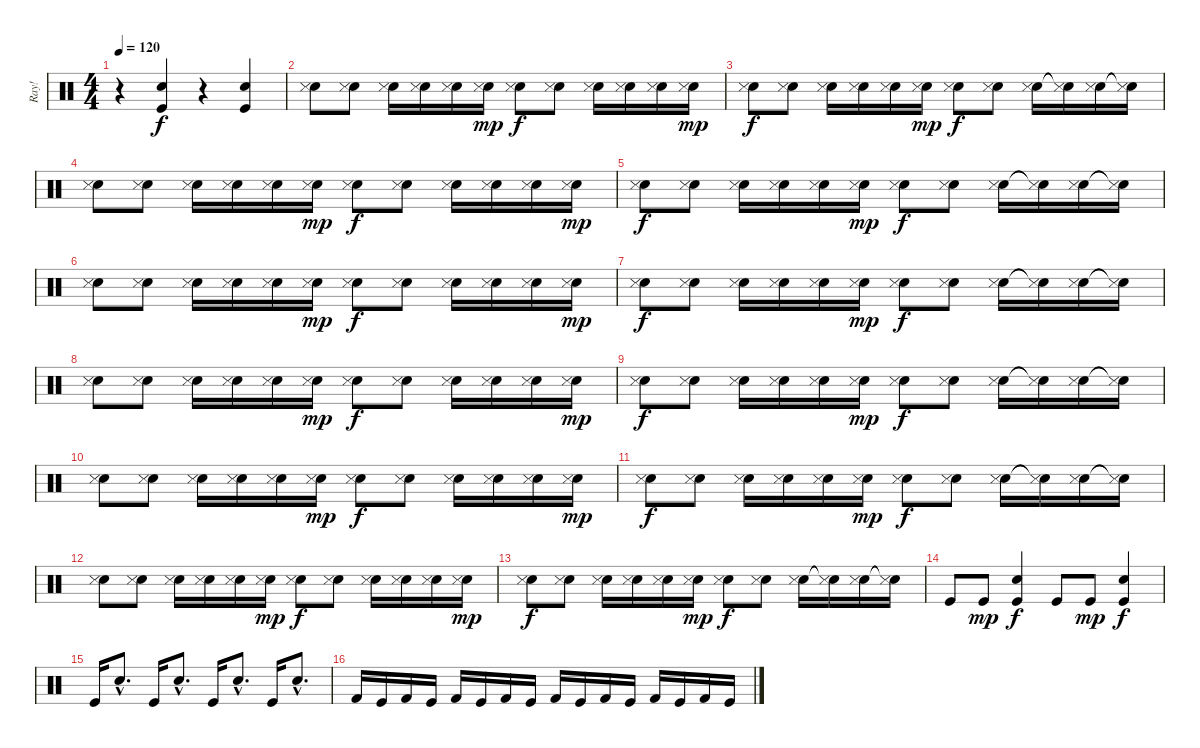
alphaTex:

\track ("Ray!" "Ray!") {instrument percussion}
\staff {score}
\articulation defaults
\ts (4 4)
\tempo 120
\clef neutral
\ks c
r.4{dy f} ("Snare (hit) 2" "Kick (hit)").4 r.4 ("Snare (hit) 2" "Kick (hit)").4 |
("Snare (hit) 2" "Snare (side stick) 3").8 ("Snare (hit) 2" "Snare (side stick) 3").8 ("Snare (hit) 2" "Snare (side stick) 3").16 ("Snare (hit) 2" "Snare (side stick) 3").16 ("Snare (hit) 2" "Snare (side stick) 3").16 ("Snare (hit) 2" "Snare (side stick) 3").16{dy mp} ("Snare (hit) 2" "Snare (side stick) 3").8{dy f} ("Snare (hit) 2" "Snare (side stick) 3").8 ("Snare (hit) 2" "Snare (side stick) 3").16 ("Snare (hit) 2" "Snare (side stick) 3").16 ("Snare (hit) 2" "Snare (side stick) 3").16 ("Snare (hit) 2" "Snare (side stick) 3").16{dy mp} |
("Snare (hit) 2" "Snare (side stick) 3").8{dy f} ("Snare (hit) 2" "Snare (side stick) 3").8 ("Snare (hit) 2" "Snare (side stick) 3").16 ("Snare (hit) 2" "Snare (side stick) 3").16 ("Snare (hit) 2" "Snare (side stick) 3").16 ("Snare (hit) 2" "Snare (side stick) 3").16{dy mp} ("Snare (hit) 2" "Snare (side stick) 3").8{dy f} ("Snare (hit) 2" "Snare (side stick) 3").8 ("Snare (hit) 2" "Snare (side stick) 3").16 ("Snare (hit) 2"{t} "Snare (side stick) 3"{t}).16 ("Snare (hit) 2" "Snare (side stick) 3").16 ("Snare (hit) 2"{t} "Snare (side stick) 3"{t}).16 |
("Snare (hit) 2" "Snare (side stick) 3").8 ("Snare (hit) 2" "Snare (side stick) 3").8 ("Snare (hit) 2" "Snare (side stick) 3").16 ("Snare (hit) 2" "Snare (side stick) 3").16 ("Snare (hit) 2" "Snare (side stick) 3").16 ("Snare (hit) 2" "Snare (side stick) 3").16{dy mp} ("Snare (hit) 2" "Snare (side stick) 3").8{dy f} ("Snare (hit) 2" "Snare (side stick) 3").8 ("Snare (hit) 2" "Snare (side stick) 3").16 ("Snare (hit) 2" "Snare (side stick) 3").16 ("Snare (hit) 2" "Snare (side stick) 3").16 ("Snare (hit) 2" "Snare (side stick) 3").16{dy mp} |
("Snare (hit) 2" "Snare (side stick) 3").8{dy f} ("Snare (hit) 2" "Snare (side stick) 3").8 ("Snare (hit) 2" "Snare (side stick) 3").16 ("Snare (hit) 2" "Snare (side stick) 3").16 ("Snare (hit) 2" "Snare (side stick) 3").16 ("Snare (hit) 2" "Snare (side stick) 3").16{dy mp} ("Snare (hit) 2" "Snare (side stick) 3").8{dy f} ("Snare (hit) 2" "Snare (side stick) 3").8 ("Snare (hit) 2" "Snare (side stick) 3").16 ("Snare (hit) 2"{t} "Snare (side stick) 3"{t}).16 ("Snare (hit) 2" "Snare (side stick) 3").16 ("Snare (hit) 2"{t} "Snare (side stick) 3"{t}).16 |
("Snare (hit) 2" "Snare (side stick) 3").8 ("Snare (hit) 2" "Snare (side stick) 3").8 ("Snare (hit) 2" "Snare (side stick) 3").16 ("Snare (hit) 2" "Snare (side stick) 3").16 ("Snare (hit) 2" "Snare (side stick) 3").16 ("Snare (hit) 2" "Snare (side stick) 3").16{dy mp} ("Snare (hit) 2" "Snare (side stick) 3").8{dy f} ("Snare (hit) 2" "Snare (side stick) 3").8 ("Snare (hit) 2" "Snare (side stick) 3").16 ("Snare (hit) 2" "Snare (side stick) 3").16 ("Snare (hit) 2" "Snare (side stick) 3").16 ("Snare (hit) 2" "Snare (side stick) 3").16{dy mp} |
("Snare (hit) 2" "Snare (side stick) 3").8{dy f} ("Snare (hit) 2" "Snare (side stick) 3").8 ("Snare (hit) 2" "Snare (side stick) 3").16 ("Snare (hit) 2" "Snare (side stick) 3").16 ("Snare (hit) 2" "Snare (side stick) 3").16 ("Snare (hit) 2" "Snare (side stick) 3").16{dy mp} ("Snare (hit) 2" "Snare (side stick) 3").8{dy f} ("Snare (hit) 2" "Snare (side stick) 3").8 ("Snare (hit) 2" "Snare (side stick) 3").16 ("Snare (hit) 2"{t} "Snare (side stick) 3"{t}).16 ("Snare (hit) 2" "Snare (side stick) 3").16 ("Snare (hit) 2"{t} "Snare (side stick) 3"{t}).16 |
("Snare (hit) 2" "Snare (side stick) 3").8 ("Snare (hit) 2" "Snare (side stick) 3").8 ("Snare (hit) 2" "Snare (side stick) 3").16 ("Snare (hit) 2" "Snare (side stick) 3").16 ("Snare (hit) 2" "Snare (side stick) 3").16 ("Snare (hit) 2" "Snare (side stick) 3").16{dy mp} ("Snare (hit) 2" "Snare (side stick) 3").8{dy f} ("Snare (hit) 2" "Snare (side stick) 3").8 ("Snare (hit) 2" "Snare (side stick) 3").16 ("Snare (hit) 2" "Snare (side stick) 3").16 ("Snare (hit) 2" "Snare (side stick) 3").16 ("Snare (hit) 2" "Snare (side stick) 3").16{dy mp} |
("Snare (hit) 2" "Snare (side stick) 3").8{dy f} ("Snare (hit) 2" "Snare (side stick) 3").8 ("Snare (hit) 2" "Snare (side stick) 3").16 ("Snare (hit) 2" "Snare (side stick) 3").16 ("Snare (hit) 2" "Snare (side stick) 3").16 ("Snare (hit) 2" "Snare (side stick) 3").16{dy mp} ("Snare (hit) 2" "Snare (side stick) 3").8{dy f} ("Snare (hit) 2" "Snare (side stick) 3").8 ("Snare (hit) 2" "Snare (side stick) 3").16 ("Snare (hit) 2"{t} "Snare (side stick) 3"{t}).16 ("Snare (hit) 2" "Snare (side stick) 3").16 ("Snare (hit) 2"{t} "Snare (side stick) 3"{t}).16 |
("Snare (hit) 2" "Snare (side stick) 3").8 ("Snare (hit) 2" "Snare (side stick) 3").8 ("Snare (hit) 2" "Snare (side stick) 3").16 ("Snare (hit) 2" "Snare (side stick) 3").16 ("Snare (hit) 2" "Snare (side stick) 3").16 ("Snare (hit) 2" "Snare (side stick) 3").16{dy mp} ("Snare (hit) 2" "Snare (side stick) 3").8{dy f} ("Snare (hit) 2" "Snare (side stick) 3").8 ("Snare (hit) 2" "Snare (side stick) 3").16 ("Snare (hit) 2" "Snare (side stick) 3").16 ("Snare (hit) 2" "Snare (side stick) 3").16 ("Snare (hit) 2" "Snare (side stick) 3").16{dy mp} |
("Snare (hit) 2" "Snare (side stick) 3").8{dy f} ("Snare (hit) 2" "Snare (side stick) 3").8 ("Snare (hit) 2" "Snare (side stick) 3").16 ("Snare (hit) 2" "Snare (side stick) 3").16 ("Snare (hit) 2" "Snare (side stick) 3").16 ("Snare (hit) 2" "Snare (side stick) 3").16{dy mp} ("Snare (hit) 2" "Snare (side stick) 3").8{dy f} ("Snare (hit) 2" "Snare (side stick) 3").8 ("Snare (hit) 2" "Snare (side stick) 3").16 ("Snare (hit) 2"{t} "Snare (side stick) 3"{t}).16 ("Snare (hit) 2" "Snare (side stick) 3").16 ("Snare (hit) 2"{t} "Snare (side stick) 3"{t}).16 |
("Snare (hit) 2" "Snare (side stick) 3").8 ("Snare (hit) 2" "Snare (side stick) 3").8 ("Snare (hit) 2" "Snare (side stick) 3").16 ("Snare (hit) 2" "Snare (side stick) 3").16 ("Snare (hit) 2" "Snare (side stick) 3").16 ("Snare (hit) 2" "Snare (side stick) 3").16{dy mp} ("Snare (hit) 2" "Snare (side stick) 3").8{dy f} ("Snare (hit) 2" "Snare (side stick) 3").8 ("Snare (hit) 2" "Snare (side stick) 3").16 ("Snare (hit) 2" "Snare (side stick) 3").16 ("Snare (hit) 2" "Snare (side stick) 3").16 ("Snare (hit) 2" "Snare (side stick) 3").16{dy mp} |
("Snare (hit) 2" "Snare (side stick) 3").8{dy f} ("Snare (hit) 2" "Snare (side stick) 3").8 ("Snare (hit) 2" "Snare (side stick) 3").16 ("Snare (hit) 2" "Snare (side stick) 3").16 ("Snare (hit) 2" "Snare (side stick) 3").16 ("Snare (hit) 2" "Snare (side stick) 3").16{dy mp} ("Snare (hit) 2" "Snare (side stick) 3").8{dy f} ("Snare (hit) 2" "Snare (side stick) 3").8 ("Snare (hit) 2" "Snare (side stick) 3").16 ("Snare (hit) 2"{t} "Snare (side stick) 3"{t}).16 ("Snare (hit) 2" "Snare (side stick) 3").16 ("Snare (hit) 2"{t} "Snare (side stick) 3"{t}).16 |
"Kick (hit)".8 "Kick (hit)".8{dy mp} ("Kick (hit)" "Snare (hit) 2").4{dy f} "Kick (hit)".8 "Kick (hit)".8{dy mp} ("Kick (hit)" "Snare (hit) 2").4{dy f} |
"Kick (hit)".16 "Snare (hit) 2"{hac}.8{d} "Kick (hit)".16 "Snare (hit) 2"{hac}.8{d} "Kick (hit)".16 "Snare (hit) 2"{hac}.8{d} "Kick (hit)".16 "Snare (hit) 2"{hac}.8{d} |
"Kick (hit) 2".16 "Kick (hit)".16 "Kick (hit) 2".16 "Kick (hit)".16 "Kick (hit) 2".16 "Kick (hit)".16 "Kick (hit) 2".16 "Kick (hit)".16 "Kick (hit) 2".16 "Kick (hit)".16 "Kick (hit) 2".16 "Kick (hit)".16 "Kick (hit) 2".16 "Kick (hit)".16 "Kick (hit) 2".16 "Kick (hit)".16
